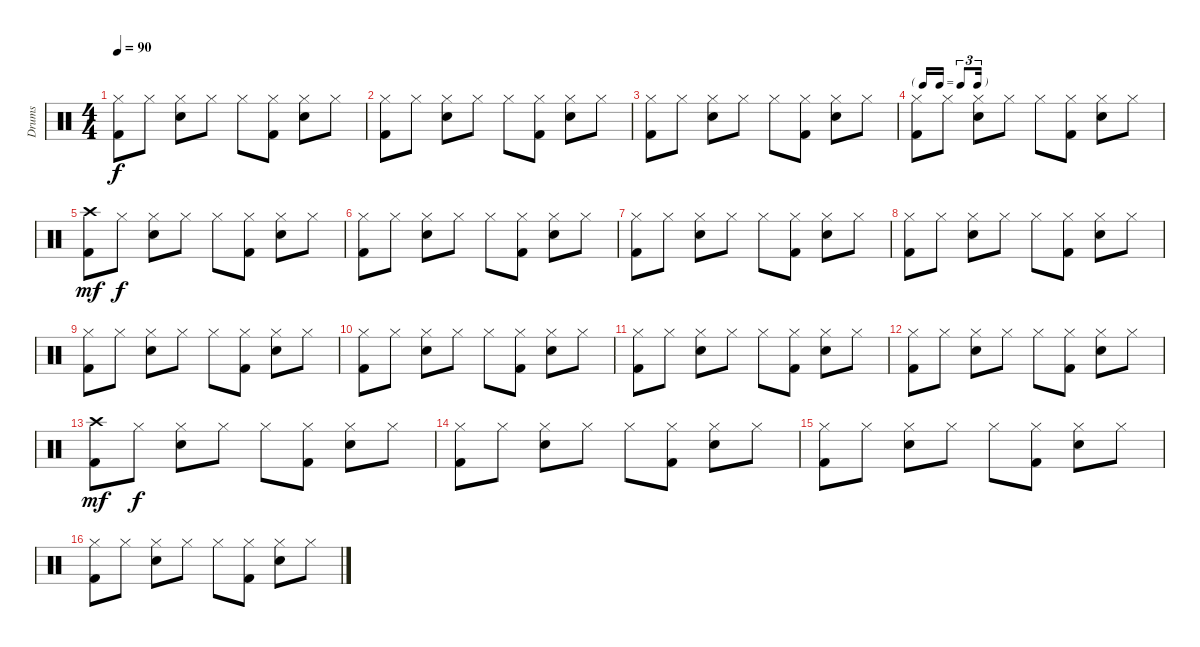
\track ("Drums" "Drums") {instrument percussion}
\staff {score}
\articulation defaults
\ts (4 4)
\tempo 90
\clef neutral
\ks c
("Kick (hit) 2" "Hi-Hat (closed)").8{dy f} "Hi-Hat (closed)".8 ("Electric Snare (hit)" "Hi-Hat (closed)").8 "Hi-Hat (closed)".8 "Hi-Hat (closed)".8 ("Kick (hit) 2" "Hi-Hat (closed)").8 ("Electric Snare (hit)" "Hi-Hat (closed)").8 "Hi-Hat (closed)".8 |
("Kick (hit) 2" "Hi-Hat (closed)").8 "Hi-Hat (closed)".8 ("Electric Snare (hit)" "Hi-Hat (closed)").8 "Hi-Hat (closed)".8 "Hi-Hat (closed)".8 ("Kick (hit) 2" "Hi-Hat (closed)").8 ("Electric Snare (hit)" "Hi-Hat (closed)").8 "Hi-Hat (closed)".8 |
("Kick (hit) 2" "Hi-Hat (closed)").8 "Hi-Hat (closed)".8 ("Electric Snare (hit)" "Hi-Hat (closed)").8 "Hi-Hat (closed)".8 "Hi-Hat (closed)".8 ("Kick (hit) 2" "Hi-Hat (closed)").8 ("Electric Snare (hit)" "Hi-Hat (closed)").8 "Hi-Hat (closed)".8 |
\tf triplet16th
("Kick (hit) 2" "Hi-Hat (closed)").8 "Hi-Hat (closed)".8 ("Electric Snare (hit)" "Hi-Hat (closed)").8 "Hi-Hat (closed)".8 "Hi-Hat (closed)".8 ("Kick (hit) 2" "Hi-Hat (closed)").8 ("Electric Snare (hit)" "Hi-Hat (closed)").8 "Hi-Hat (closed)".8 |
("Kick (hit) 2" "Crash high (hit)").8{dy mf} "Hi-Hat (closed)".8{dy f} ("Electric Snare (hit)" "Hi-Hat (closed)").8 "Hi-Hat (closed)".8 "Hi-Hat (closed)".8 ("Kick (hit) 2" "Hi-Hat (closed)").8 ("Electric Snare (hit)" "Hi-Hat (closed)").8 "Hi-Hat (closed)".8 |
("Kick (hit) 2" "Hi-Hat (closed)").8 "Hi-Hat (closed)".8 ("Electric Snare (hit)" "Hi-Hat (closed)").8 "Hi-Hat (closed)".8 "Hi-Hat (closed)".8 ("Kick (hit) 2" "Hi-Hat (closed)").8 ("Electric Snare (hit)" "Hi-Hat (closed)").8 "Hi-Hat (closed)".8 |
("Kick (hit) 2" "Hi-Hat (closed)").8 "Hi-Hat (closed)".8 ("Electric Snare (hit)" "Hi-Hat (closed)").8 "Hi-Hat (closed)".8 "Hi-Hat (closed)".8 ("Kick (hit) 2" "Hi-Hat (closed)").8 ("Electric Snare (hit)" "Hi-Hat (closed)").8 "Hi-Hat (closed)".8 |
("Kick (hit) 2" "Hi-Hat (closed)").8 "Hi-Hat (closed)".8 ("Electric Snare (hit)" "Hi-Hat (closed)").8 "Hi-Hat (closed)".8 "Hi-Hat (closed)".8 ("Kick (hit) 2" "Hi-Hat (closed)").8 ("Electric Snare (hit)" "Hi-Hat (closed)").8 "Hi-Hat (closed)".8 |
("Kick (hit) 2" "Hi-Hat (closed)").8 "Hi-Hat (closed)".8 ("Electric Snare (hit)" "Hi-Hat (closed)").8 "Hi-Hat (closed)".8 "Hi-Hat (closed)".8 ("Kick (hit) 2" "Hi-Hat (closed)").8 ("Electric Snare (hit)" "Hi-Hat (closed)").8 "Hi-Hat (closed)".8 |
("Kick (hit) 2" "Hi-Hat (closed)").8 "Hi-Hat (closed)".8 ("Electric Snare (hit)" "Hi-Hat (closed)").8 "Hi-Hat (closed)".8 "Hi-Hat (closed)".8 ("Kick (hit) 2" "Hi-Hat (closed)").8 ("Electric Snare (hit)" "Hi-Hat (closed)").8 "Hi-Hat (closed)".8 |
("Kick (hit) 2" "Hi-Hat (closed)").8 "Hi-Hat (closed)".8 ("Electric Snare (hit)" "Hi-Hat (closed)").8 "Hi-Hat (closed)".8 "Hi-Hat (closed)".8 ("Kick (hit) 2" "Hi-Hat (closed)").8 ("Electric Snare (hit)" "Hi-Hat (closed)").8 "Hi-Hat (closed)".8 |
("Kick (hit) 2" "Hi-Hat (closed)").8 "Hi-Hat (closed)".8 ("Electric Snare (hit)" "Hi-Hat (closed)").8 "Hi-Hat (closed)".8 "Hi-Hat (closed)".8 ("Kick (hit) 2" "Hi-Hat (closed)").8 ("Electric Snare (hit)" "Hi-Hat (closed)").8 "Hi-Hat (closed)".8 |
("Kick (hit) 2" "Crash high (hit)").8{dy mf} "Hi-Hat (closed)".8{dy f} ("Electric Snare (hit)" "Hi-Hat (closed)").8 "Hi-Hat (closed)".8 "Hi-Hat (closed)".8 ("Kick (hit) 2" "Hi-Hat (closed)").8 ("Electric Snare (hit)" "Hi-Hat (closed)").8 "Hi-Hat (closed)".8 |
("Kick (hit) 2" "Hi-Hat (closed)").8 "Hi-Hat (closed)".8 ("Electric Snare (hit)" "Hi-Hat (closed)").8 "Hi-Hat (closed)".8 "Hi-Hat (closed)".8 ("Kick (hit) 2" "Hi-Hat (closed)").8 ("Electric Snare (hit)" "Hi-Hat (closed)").8 "Hi-Hat (closed)".8 |
("Kick (hit) 2" "Hi-Hat (closed)").8 "Hi-Hat (closed)".8 ("Electric Snare (hit)" "Hi-Hat (closed)").8 "Hi-Hat (closed)".8 "Hi-Hat (closed)".8 ("Kick (hit) 2" "Hi-Hat (closed)").8 ("Electric Snare (hit)" "Hi-Hat (closed)").8 "Hi-Hat (closed)".8 |
("Kick (hit) 2" "Hi-Hat (closed)").8 "Hi-Hat (closed)".8 ("Electric Snare (hit)" "Hi-Hat (closed)").8 "Hi-Hat (closed)".8 "Hi-Hat (closed)".8 ("Kick (hit) 2" "Hi-Hat (closed)").8 ("Electric Snare (hit)" "Hi-Hat (closed)").8 "Hi-Hat (closed)".8
